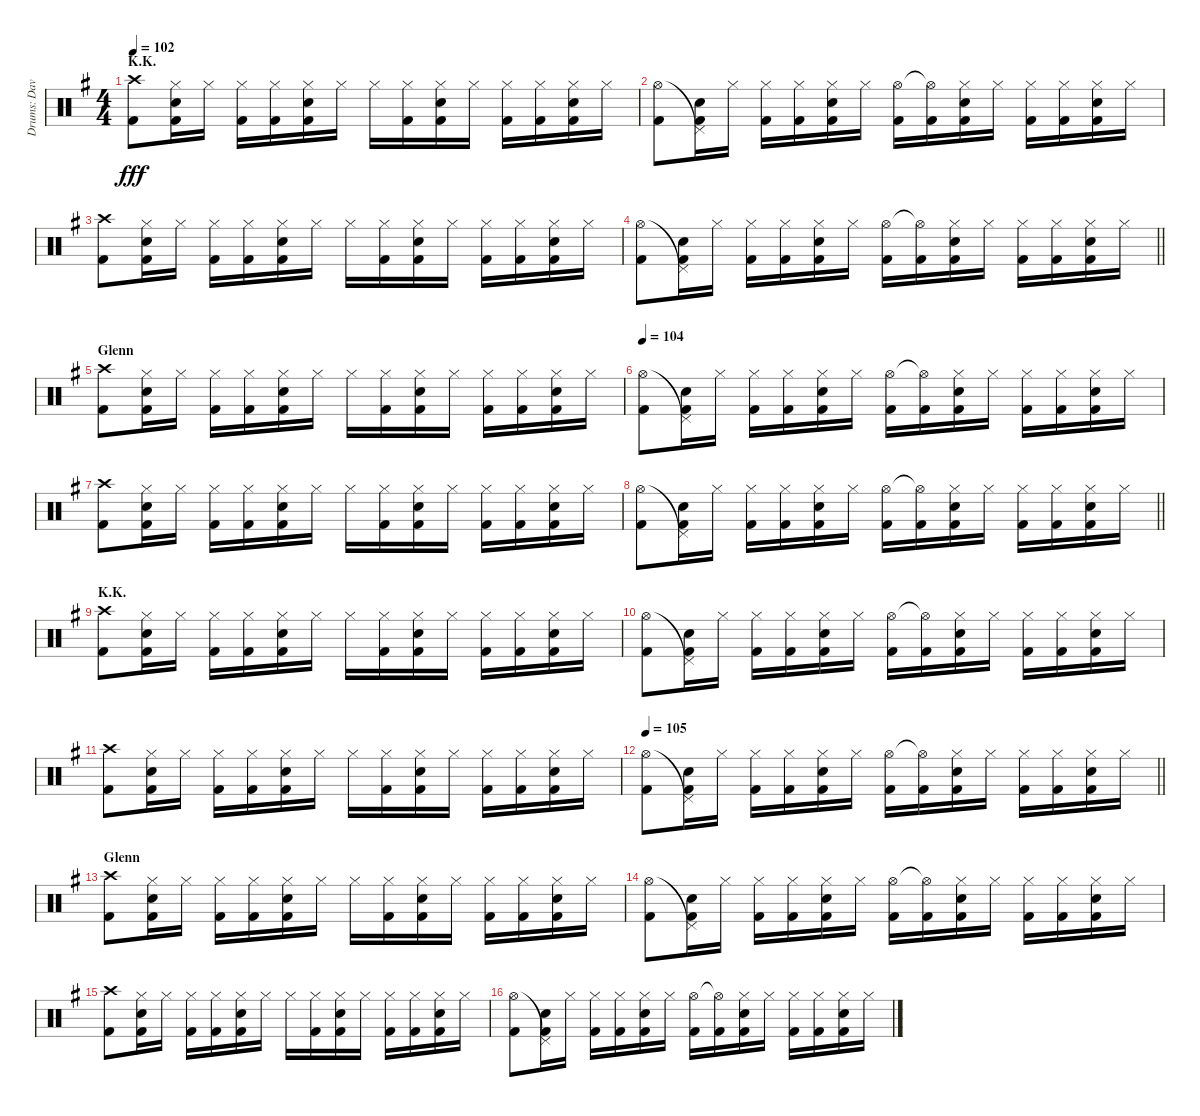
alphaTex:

\track ("Drums: Dave" "Drums: Dav") {instrument percussion}
\staff {score}
\articulation defaults
\ts (4 4)
\section ("" "K.K.")
\tempo 102
\clef neutral
\ks g
("Crash high (hit)" "Kick (hit) 2").8{dy fff} ("Hi-Hat (closed)" "Electric Snare (hit)" "Kick (hit) 2").16 "Hi-Hat (closed)".16 ("Hi-Hat (closed)" "Kick (hit) 2").16 ("Hi-Hat (closed)" "Kick (hit) 2").16 ("Hi-Hat (closed)" "Electric Snare (hit)" "Kick (hit) 2").16 "Hi-Hat (closed)".16 "Hi-Hat (closed)".16 ("Hi-Hat (closed)" "Kick (hit) 2").16 ("Hi-Hat (closed)" "Electric Snare (hit)" "Kick (hit) 2").16 "Hi-Hat (closed)".16 ("Hi-Hat (closed)" "Kick (hit) 2").16 ("Hi-Hat (closed)" "Kick (hit) 2").16 ("Hi-Hat (closed)" "Electric Snare (hit)" "Kick (hit) 2").16 "Hi-Hat (closed)".16 |
("Hi-Hat (open)" "Kick (hit) 2").8 ("Pedal Hi-Hat (hit)"{t} "Electric Snare (hit)" "Kick (hit) 2").16 "Hi-Hat (closed)".16 ("Hi-Hat (closed)" "Kick (hit) 2").16 ("Hi-Hat (closed)" "Kick (hit) 2").16 ("Hi-Hat (closed)" "Electric Snare (hit)" "Kick (hit) 2").16 "Hi-Hat (closed)".16 ("Hi-Hat (open)" "Kick (hit) 2").16 ("Hi-Hat (open)"{t} "Kick (hit) 2").16 ("Hi-Hat (closed)" "Electric Snare (hit)" "Kick (hit) 2").16 "Hi-Hat (closed)".16 ("Hi-Hat (closed)" "Kick (hit) 2").16 ("Hi-Hat (closed)" "Kick (hit) 2").16 ("Hi-Hat (closed)" "Electric Snare (hit)" "Kick (hit) 2").16 "Hi-Hat (closed)".16 |
("Crash high (hit)" "Kick (hit) 2").8 ("Hi-Hat (closed)" "Electric Snare (hit)" "Kick (hit) 2").16 "Hi-Hat (closed)".16 ("Hi-Hat (closed)" "Kick (hit) 2").16 ("Hi-Hat (closed)" "Kick (hit) 2").16 ("Hi-Hat (closed)" "Electric Snare (hit)" "Kick (hit) 2").16 "Hi-Hat (closed)".16 "Hi-Hat (closed)".16 ("Hi-Hat (closed)" "Kick (hit) 2").16 ("Hi-Hat (closed)" "Electric Snare (hit)" "Kick (hit) 2").16 "Hi-Hat (closed)".16 ("Hi-Hat (closed)" "Kick (hit) 2").16 ("Hi-Hat (closed)" "Kick (hit) 2").16 ("Hi-Hat (closed)" "Electric Snare (hit)" "Kick (hit) 2").16 "Hi-Hat (closed)".16 |
\barLineRight lightlight
("Hi-Hat (open)" "Kick (hit) 2").8 ("Pedal Hi-Hat (hit)"{t} "Electric Snare (hit)" "Kick (hit) 2").16 "Hi-Hat (closed)".16 ("Hi-Hat (closed)" "Kick (hit) 2").16 ("Hi-Hat (closed)" "Kick (hit) 2").16 ("Hi-Hat (closed)" "Electric Snare (hit)" "Kick (hit) 2").16 "Hi-Hat (closed)".16 ("Hi-Hat (open)" "Kick (hit) 2").16 ("Hi-Hat (open)"{t} "Kick (hit) 2").16 ("Hi-Hat (closed)" "Electric Snare (hit)" "Kick (hit) 2").16 "Hi-Hat (closed)".16 ("Hi-Hat (closed)" "Kick (hit) 2").16 ("Hi-Hat (closed)" "Kick (hit) 2").16 ("Hi-Hat (closed)" "Electric Snare (hit)" "Kick (hit) 2").16 "Hi-Hat (closed)".16 |
\section ("" "Glenn")
("Crash high (hit)" "Kick (hit) 2").8 ("Hi-Hat (closed)" "Electric Snare (hit)" "Kick (hit) 2").16 "Hi-Hat (closed)".16 ("Hi-Hat (closed)" "Kick (hit) 2").16 ("Hi-Hat (closed)" "Kick (hit) 2").16 ("Hi-Hat (closed)" "Electric Snare (hit)" "Kick (hit) 2").16 "Hi-Hat (closed)".16 "Hi-Hat (closed)".16 ("Hi-Hat (closed)" "Kick (hit) 2").16 ("Hi-Hat (closed)" "Electric Snare (hit)" "Kick (hit) 2").16 "Hi-Hat (closed)".16 ("Hi-Hat (closed)" "Kick (hit) 2").16 ("Hi-Hat (closed)" "Kick (hit) 2").16 ("Hi-Hat (closed)" "Electric Snare (hit)" "Kick (hit) 2").16 "Hi-Hat (closed)".16 |
\tempo 104
("Hi-Hat (open)" "Kick (hit) 2").8 ("Pedal Hi-Hat (hit)"{t} "Electric Snare (hit)" "Kick (hit) 2").16 "Hi-Hat (closed)".16 ("Hi-Hat (closed)" "Kick (hit) 2").16 ("Hi-Hat (closed)" "Kick (hit) 2").16 ("Hi-Hat (closed)" "Electric Snare (hit)" "Kick (hit) 2").16 "Hi-Hat (closed)".16 ("Hi-Hat (open)" "Kick (hit) 2").16 ("Hi-Hat (open)"{t} "Kick (hit) 2").16 ("Hi-Hat (closed)" "Electric Snare (hit)" "Kick (hit) 2").16 "Hi-Hat (closed)".16 ("Hi-Hat (closed)" "Kick (hit) 2").16 ("Hi-Hat (closed)" "Kick (hit) 2").16 ("Hi-Hat (closed)" "Electric Snare (hit)" "Kick (hit) 2").16 "Hi-Hat (closed)".16 |
("Crash high (hit)" "Kick (hit) 2").8 ("Hi-Hat (closed)" "Electric Snare (hit)" "Kick (hit) 2").16 "Hi-Hat (closed)".16 ("Hi-Hat (closed)" "Kick (hit) 2").16 ("Hi-Hat (closed)" "Kick (hit) 2").16 ("Hi-Hat (closed)" "Electric Snare (hit)" "Kick (hit) 2").16 "Hi-Hat (closed)".16 "Hi-Hat (closed)".16 ("Hi-Hat (closed)" "Kick (hit) 2").16 ("Hi-Hat (closed)" "Electric Snare (hit)" "Kick (hit) 2").16 "Hi-Hat (closed)".16 ("Hi-Hat (closed)" "Kick (hit) 2").16 ("Hi-Hat (closed)" "Kick (hit) 2").16 ("Hi-Hat (closed)" "Electric Snare (hit)" "Kick (hit) 2").16 "Hi-Hat (closed)".16 |
\barLineRight lightlight
("Hi-Hat (open)" "Kick (hit) 2").8 ("Pedal Hi-Hat (hit)"{t} "Electric Snare (hit)" "Kick (hit) 2").16 "Hi-Hat (closed)".16 ("Hi-Hat (closed)" "Kick (hit) 2").16 ("Hi-Hat (closed)" "Kick (hit) 2").16 ("Hi-Hat (closed)" "Electric Snare (hit)" "Kick (hit) 2").16 "Hi-Hat (closed)".16 ("Hi-Hat (open)" "Kick (hit) 2").16 ("Hi-Hat (open)"{t} "Kick (hit) 2").16 ("Hi-Hat (closed)" "Electric Snare (hit)" "Kick (hit) 2").16 "Hi-Hat (closed)".16 ("Hi-Hat (closed)" "Kick (hit) 2").16 ("Hi-Hat (closed)" "Kick (hit) 2").16 ("Hi-Hat (closed)" "Electric Snare (hit)" "Kick (hit) 2").16 "Hi-Hat (closed)".16 |
\section ("" "K.K.")
("Crash high (hit)" "Kick (hit) 2").8 ("Hi-Hat (closed)" "Electric Snare (hit)" "Kick (hit) 2").16 "Hi-Hat (closed)".16 ("Hi-Hat (closed)" "Kick (hit) 2").16 ("Hi-Hat (closed)" "Kick (hit) 2").16 ("Hi-Hat (closed)" "Electric Snare (hit)" "Kick (hit) 2").16 "Hi-Hat (closed)".16 "Hi-Hat (closed)".16 ("Hi-Hat (closed)" "Kick (hit) 2").16 ("Hi-Hat (closed)" "Electric Snare (hit)" "Kick (hit) 2").16 "Hi-Hat (closed)".16 ("Hi-Hat (closed)" "Kick (hit) 2").16 ("Hi-Hat (closed)" "Kick (hit) 2").16 ("Hi-Hat (closed)" "Electric Snare (hit)" "Kick (hit) 2").16 "Hi-Hat (closed)".16 |
("Hi-Hat (open)" "Kick (hit) 2").8 ("Pedal Hi-Hat (hit)"{t} "Electric Snare (hit)" "Kick (hit) 2").16 "Hi-Hat (closed)".16 ("Hi-Hat (closed)" "Kick (hit) 2").16 ("Hi-Hat (closed)" "Kick (hit) 2").16 ("Hi-Hat (closed)" "Electric Snare (hit)" "Kick (hit) 2").16 "Hi-Hat (closed)".16 ("Hi-Hat (open)" "Kick (hit) 2").16 ("Hi-Hat (open)"{t} "Kick (hit) 2").16 ("Hi-Hat (closed)" "Electric Snare (hit)" "Kick (hit) 2").16 "Hi-Hat (closed)".16 ("Hi-Hat (closed)" "Kick (hit) 2").16 ("Hi-Hat (closed)" "Kick (hit) 2").16 ("Hi-Hat (closed)" "Electric Snare (hit)" "Kick (hit) 2").16 "Hi-Hat (closed)".16 |
("Crash high (hit)" "Kick (hit) 2").8 ("Hi-Hat (closed)" "Electric Snare (hit)" "Kick (hit) 2").16 "Hi-Hat (closed)".16 ("Hi-Hat (closed)" "Kick (hit) 2").16 ("Hi-Hat (closed)" "Kick (hit) 2").16 ("Hi-Hat (closed)" "Electric Snare (hit)" "Kick (hit) 2").16 "Hi-Hat (closed)".16 "Hi-Hat (closed)".16 ("Hi-Hat (closed)" "Kick (hit) 2").16 ("Hi-Hat (closed)" "Electric Snare (hit)" "Kick (hit) 2").16 "Hi-Hat (closed)".16 ("Hi-Hat (closed)" "Kick (hit) 2").16 ("Hi-Hat (closed)" "Kick (hit) 2").16 ("Hi-Hat (closed)" "Electric Snare (hit)" "Kick (hit) 2").16 "Hi-Hat (closed)".16 |
\tempo 105
\barLineRight lightlight
("Hi-Hat (open)" "Kick (hit) 2").8 ("Pedal Hi-Hat (hit)"{t} "Electric Snare (hit)" "Kick (hit) 2").16 "Hi-Hat (closed)".16 ("Hi-Hat (closed)" "Kick (hit) 2").16 ("Hi-Hat (closed)" "Kick (hit) 2").16 ("Hi-Hat (closed)" "Electric Snare (hit)" "Kick (hit) 2").16 "Hi-Hat (closed)".16 ("Hi-Hat (open)" "Kick (hit) 2").16 ("Hi-Hat (open)"{t} "Kick (hit) 2").16 ("Hi-Hat (closed)" "Electric Snare (hit)" "Kick (hit) 2").16 "Hi-Hat (closed)".16 ("Hi-Hat (closed)" "Kick (hit) 2").16 ("Hi-Hat (closed)" "Kick (hit) 2").16 ("Hi-Hat (closed)" "Electric Snare (hit)" "Kick (hit) 2").16 "Hi-Hat (closed)".16 |
\section ("" "Glenn")
("Crash high (hit)" "Kick (hit) 2").8 ("Hi-Hat (closed)" "Electric Snare (hit)" "Kick (hit) 2").16 "Hi-Hat (closed)".16 ("Hi-Hat (closed)" "Kick (hit) 2").16 ("Hi-Hat (closed)" "Kick (hit) 2").16 ("Hi-Hat (closed)" "Electric Snare (hit)" "Kick (hit) 2").16 "Hi-Hat (closed)".16 "Hi-Hat (closed)".16 ("Hi-Hat (closed)" "Kick (hit) 2").16 ("Hi-Hat (closed)" "Electric Snare (hit)" "Kick (hit) 2").16 "Hi-Hat (closed)".16 ("Hi-Hat (closed)" "Kick (hit) 2").16 ("Hi-Hat (closed)" "Kick (hit) 2").16 ("Hi-Hat (closed)" "Electric Snare (hit)" "Kick (hit) 2").16 "Hi-Hat (closed)".16 |
("Hi-Hat (open)" "Kick (hit) 2").8 ("Pedal Hi-Hat (hit)"{t} "Electric Snare (hit)" "Kick (hit) 2").16 "Hi-Hat (closed)".16 ("Hi-Hat (closed)" "Kick (hit) 2").16 ("Hi-Hat (closed)" "Kick (hit) 2").16 ("Hi-Hat (closed)" "Electric Snare (hit)" "Kick (hit) 2").16 "Hi-Hat (closed)".16 ("Hi-Hat (open)" "Kick (hit) 2").16 ("Hi-Hat (open)"{t} "Kick (hit) 2").16 ("Hi-Hat (closed)" "Electric Snare (hit)" "Kick (hit) 2").16 "Hi-Hat (closed)".16 ("Hi-Hat (closed)" "Kick (hit) 2").16 ("Hi-Hat (closed)" "Kick (hit) 2").16 ("Hi-Hat (closed)" "Electric Snare (hit)" "Kick (hit) 2").16 "Hi-Hat (closed)".16 |
("Crash high (hit)" "Kick (hit) 2").8 ("Hi-Hat (closed)" "Electric Snare (hit)" "Kick (hit) 2").16 "Hi-Hat (closed)".16 ("Hi-Hat (closed)" "Kick (hit) 2").16 ("Hi-Hat (closed)" "Kick (hit) 2").16 ("Hi-Hat (closed)" "Electric Snare (hit)" "Kick (hit) 2").16 "Hi-Hat (closed)".16 "Hi-Hat (closed)".16 ("Hi-Hat (closed)" "Kick (hit) 2").16 ("Hi-Hat (closed)" "Electric Snare (hit)" "Kick (hit) 2").16 "Hi-Hat (closed)".16 ("Hi-Hat (closed)" "Kick (hit) 2").16 ("Hi-Hat (closed)" "Kick (hit) 2").16 ("Hi-Hat (closed)" "Electric Snare (hit)" "Kick (hit) 2").16 "Hi-Hat (closed)".16 |
("Hi-Hat (open)" "Kick (hit) 2").8 ("Pedal Hi-Hat (hit)"{t} "Electric Snare (hit)" "Kick (hit) 2").16 "Hi-Hat (closed)".16 ("Hi-Hat (closed)" "Kick (hit) 2").16 ("Hi-Hat (closed)" "Kick (hit) 2").16 ("Hi-Hat (closed)" "Electric Snare (hit)" "Kick (hit) 2").16 "Hi-Hat (closed)".16 ("Hi-Hat (open)" "Kick (hit) 2").16 ("Hi-Hat (open)"{t} "Kick (hit) 2").16 ("Hi-Hat (closed)" "Electric Snare (hit)" "Kick (hit) 2").16 "Hi-Hat (closed)".16 ("Hi-Hat (closed)" "Kick (hit) 2").16 ("Hi-Hat (closed)" "Kick (hit) 2").16 ("Hi-Hat (closed)" "Electric Snare (hit)" "Kick (hit) 2").16 "Hi-Hat (closed)".16
